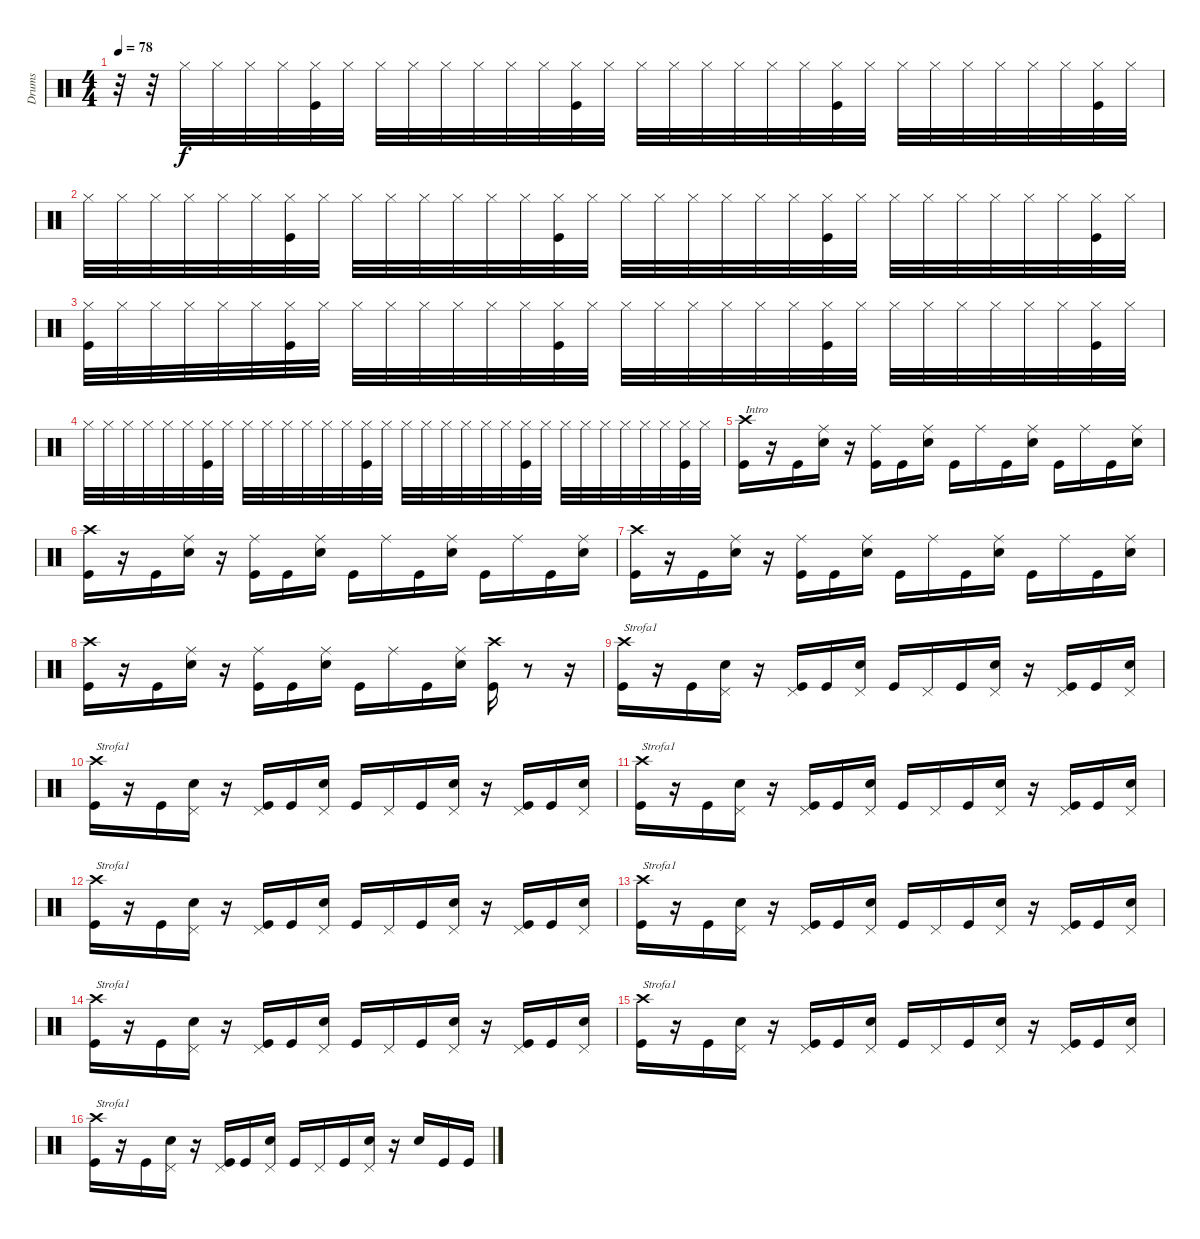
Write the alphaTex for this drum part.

\track ("Drums" "Drums") {instrument percussion}
\staff {score}
\articulation defaults
\ts (4 4)
\tempo 78
\clef neutral
\ks c
r.32{dy f} r.32 "Hi-Hat (closed)".32 "Hi-Hat (closed)".32 "Hi-Hat (closed)".32 "Hi-Hat (closed)".32 ("Hi-Hat (closed)" "Kick (hit)").32 "Hi-Hat (closed)".32 "Hi-Hat (closed)".32 "Hi-Hat (closed)".32 "Hi-Hat (closed)".32 "Hi-Hat (closed)".32 "Hi-Hat (closed)".32 "Hi-Hat (closed)".32 ("Hi-Hat (closed)" "Kick (hit)").32 "Hi-Hat (closed)".32 "Hi-Hat (closed)".32 "Hi-Hat (closed)".32 "Hi-Hat (closed)".32 "Hi-Hat (closed)".32 "Hi-Hat (closed)".32 "Hi-Hat (closed)".32 ("Hi-Hat (closed)" "Kick (hit)").32 "Hi-Hat (closed)".32 "Hi-Hat (closed)".32 "Hi-Hat (closed)".32 "Hi-Hat (closed)".32 "Hi-Hat (closed)".32 "Hi-Hat (closed)".32 "Hi-Hat (closed)".32 ("Hi-Hat (closed)" "Kick (hit)").32 "Hi-Hat (closed)".32 |
"Hi-Hat (closed)".32 "Hi-Hat (closed)".32 "Hi-Hat (closed)".32 "Hi-Hat (closed)".32 "Hi-Hat (closed)".32 "Hi-Hat (closed)".32 ("Hi-Hat (closed)" "Kick (hit)").32 "Hi-Hat (closed)".32 "Hi-Hat (closed)".32 "Hi-Hat (closed)".32 "Hi-Hat (closed)".32 "Hi-Hat (closed)".32 "Hi-Hat (closed)".32 "Hi-Hat (closed)".32 ("Hi-Hat (closed)" "Kick (hit)").32 "Hi-Hat (closed)".32 "Hi-Hat (closed)".32 "Hi-Hat (closed)".32 "Hi-Hat (closed)".32 "Hi-Hat (closed)".32 "Hi-Hat (closed)".32 "Hi-Hat (closed)".32 ("Hi-Hat (closed)" "Kick (hit)").32 "Hi-Hat (closed)".32 "Hi-Hat (closed)".32 "Hi-Hat (closed)".32 "Hi-Hat (closed)".32 "Hi-Hat (closed)".32 "Hi-Hat (closed)".32 "Hi-Hat (closed)".32 ("Hi-Hat (closed)" "Kick (hit)").32 "Hi-Hat (closed)".32 |
("Hi-Hat (closed)" "Kick (hit)").32 "Hi-Hat (closed)".32 "Hi-Hat (closed)".32 "Hi-Hat (closed)".32 "Hi-Hat (closed)".32 "Hi-Hat (closed)".32 ("Hi-Hat (closed)" "Kick (hit)").32 "Hi-Hat (closed)".32 "Hi-Hat (closed)".32 "Hi-Hat (closed)".32 "Hi-Hat (closed)".32 "Hi-Hat (closed)".32 "Hi-Hat (closed)".32 "Hi-Hat (closed)".32 ("Hi-Hat (closed)" "Kick (hit)").32 "Hi-Hat (closed)".32 "Hi-Hat (closed)".32 "Hi-Hat (closed)".32 "Hi-Hat (closed)".32 "Hi-Hat (closed)".32 "Hi-Hat (closed)".32 "Hi-Hat (closed)".32 ("Hi-Hat (closed)" "Kick (hit)").32 "Hi-Hat (closed)".32 "Hi-Hat (closed)".32 "Hi-Hat (closed)".32 "Hi-Hat (closed)".32 "Hi-Hat (closed)".32 "Hi-Hat (closed)".32 "Hi-Hat (closed)".32 ("Hi-Hat (closed)" "Kick (hit)").32 "Hi-Hat (closed)".32 |
"Hi-Hat (closed)".32 "Hi-Hat (closed)".32 "Hi-Hat (closed)".32 "Hi-Hat (closed)".32 "Hi-Hat (closed)".32 "Hi-Hat (closed)".32 ("Hi-Hat (closed)" "Kick (hit)").32 "Hi-Hat (closed)".32 "Hi-Hat (closed)".32 "Hi-Hat (closed)".32 "Hi-Hat (closed)".32 "Hi-Hat (closed)".32 "Hi-Hat (closed)".32 "Hi-Hat (closed)".32 ("Hi-Hat (closed)" "Kick (hit)").32 "Hi-Hat (closed)".32 "Hi-Hat (closed)".32 "Hi-Hat (closed)".32 "Hi-Hat (closed)".32 "Hi-Hat (closed)".32 "Hi-Hat (closed)".32 "Hi-Hat (closed)".32 ("Hi-Hat (closed)" "Kick (hit)").32 "Hi-Hat (closed)".32 "Hi-Hat (closed)".32 "Hi-Hat (closed)".32 "Hi-Hat (closed)".32 "Hi-Hat (closed)".32 "Hi-Hat (closed)".32 "Hi-Hat (closed)".32 ("Hi-Hat (closed)" "Kick (hit)").32 "Hi-Hat (closed)".32 |
("Crash high (hit)" "Kick (hit)").16{txt "Intro"} r.16 "Kick (hit)".16 ("Ride (middle)" "Snare (hit) 2").16 r.16 ("Ride (middle)" "Kick (hit)").16 "Kick (hit)".16 ("Ride (middle)" "Snare (hit) 2").16 "Kick (hit)".16 "Ride (middle)".16 "Kick (hit)".16 ("Ride (middle)" "Snare (hit) 2").16 "Kick (hit)".16 "Ride (middle)".16 "Kick (hit)".16 ("Ride (middle)" "Snare (hit) 2").16 |
("Crash high (hit)" "Kick (hit)").16 r.16 "Kick (hit)".16 ("Ride (middle)" "Snare (hit) 2").16 r.16 ("Ride (middle)" "Kick (hit)").16 "Kick (hit)".16 ("Ride (middle)" "Snare (hit) 2").16 "Kick (hit)".16 "Ride (middle)".16 "Kick (hit)".16 ("Ride (middle)" "Snare (hit) 2").16 "Kick (hit)".16 "Ride (middle)".16 "Kick (hit)".16 ("Ride (middle)" "Snare (hit) 2").16 |
("Crash high (hit)" "Kick (hit)").16 r.16 "Kick (hit)".16 ("Ride (middle)" "Snare (hit) 2").16 r.16 ("Ride (middle)" "Kick (hit)").16 "Kick (hit)".16 ("Ride (middle)" "Snare (hit) 2").16 "Kick (hit)".16 "Ride (middle)".16 "Kick (hit)".16 ("Ride (middle)" "Snare (hit) 2").16 "Kick (hit)".16 "Ride (middle)".16 "Kick (hit)".16 ("Ride (middle)" "Snare (hit) 2").16 |
("Crash high (hit)" "Kick (hit)").16 r.16 "Kick (hit)".16 ("Ride (middle)" "Snare (hit) 2").16 r.16 ("Ride (middle)" "Kick (hit)").16 "Kick (hit)".16 ("Ride (middle)" "Snare (hit) 2").16 "Kick (hit)".16 "Ride (middle)".16 "Kick (hit)".16 ("Ride (middle)" "Snare (hit) 2").16 ("Crash high (hit)" "Kick (hit)").16 r.8 r.16 |
("Crash high (hit)" "Kick (hit)").16{txt "Strofa1"} r.16 "Kick (hit)".16 ("Pedal Hi-Hat (hit)" "Snare (hit) 2").16 r.16 ("Pedal Hi-Hat (hit)" "Kick (hit)").16 "Kick (hit)".16 ("Pedal Hi-Hat (hit)" "Snare (hit) 2").16 "Kick (hit)".16 "Pedal Hi-Hat (hit)".16 "Kick (hit)".16 ("Pedal Hi-Hat (hit)" "Snare (hit) 2").16 r.16 ("Pedal Hi-Hat (hit)" "Kick (hit)").16 "Kick (hit)".16 ("Pedal Hi-Hat (hit)" "Snare (hit) 2").16 |
("Crash high (hit)" "Kick (hit)").16{txt "Strofa1"} r.16 "Kick (hit)".16 ("Pedal Hi-Hat (hit)" "Snare (hit) 2").16 r.16 ("Pedal Hi-Hat (hit)" "Kick (hit)").16 "Kick (hit)".16 ("Pedal Hi-Hat (hit)" "Snare (hit) 2").16 "Kick (hit)".16 "Pedal Hi-Hat (hit)".16 "Kick (hit)".16 ("Pedal Hi-Hat (hit)" "Snare (hit) 2").16 r.16 ("Pedal Hi-Hat (hit)" "Kick (hit)").16 "Kick (hit)".16 ("Pedal Hi-Hat (hit)" "Snare (hit) 2").16 |
("Crash high (hit)" "Kick (hit)").16{txt "Strofa1"} r.16 "Kick (hit)".16 ("Pedal Hi-Hat (hit)" "Snare (hit) 2").16 r.16 ("Pedal Hi-Hat (hit)" "Kick (hit)").16 "Kick (hit)".16 ("Pedal Hi-Hat (hit)" "Snare (hit) 2").16 "Kick (hit)".16 "Pedal Hi-Hat (hit)".16 "Kick (hit)".16 ("Pedal Hi-Hat (hit)" "Snare (hit) 2").16 r.16 ("Pedal Hi-Hat (hit)" "Kick (hit)").16 "Kick (hit)".16 ("Pedal Hi-Hat (hit)" "Snare (hit) 2").16 |
("Crash high (hit)" "Kick (hit)").16{txt "Strofa1"} r.16 "Kick (hit)".16 ("Pedal Hi-Hat (hit)" "Snare (hit) 2").16 r.16 ("Pedal Hi-Hat (hit)" "Kick (hit)").16 "Kick (hit)".16 ("Pedal Hi-Hat (hit)" "Snare (hit) 2").16 "Kick (hit)".16 "Pedal Hi-Hat (hit)".16 "Kick (hit)".16 ("Pedal Hi-Hat (hit)" "Snare (hit) 2").16 r.16 ("Pedal Hi-Hat (hit)" "Kick (hit)").16 "Kick (hit)".16 ("Pedal Hi-Hat (hit)" "Snare (hit) 2").16 |
("Crash high (hit)" "Kick (hit)").16{txt "Strofa1"} r.16 "Kick (hit)".16 ("Pedal Hi-Hat (hit)" "Snare (hit) 2").16 r.16 ("Pedal Hi-Hat (hit)" "Kick (hit)").16 "Kick (hit)".16 ("Pedal Hi-Hat (hit)" "Snare (hit) 2").16 "Kick (hit)".16 "Pedal Hi-Hat (hit)".16 "Kick (hit)".16 ("Pedal Hi-Hat (hit)" "Snare (hit) 2").16 r.16 ("Pedal Hi-Hat (hit)" "Kick (hit)").16 "Kick (hit)".16 ("Pedal Hi-Hat (hit)" "Snare (hit) 2").16 |
("Crash high (hit)" "Kick (hit)").16{txt "Strofa1"} r.16 "Kick (hit)".16 ("Pedal Hi-Hat (hit)" "Snare (hit) 2").16 r.16 ("Pedal Hi-Hat (hit)" "Kick (hit)").16 "Kick (hit)".16 ("Pedal Hi-Hat (hit)" "Snare (hit) 2").16 "Kick (hit)".16 "Pedal Hi-Hat (hit)".16 "Kick (hit)".16 ("Pedal Hi-Hat (hit)" "Snare (hit) 2").16 r.16 ("Pedal Hi-Hat (hit)" "Kick (hit)").16 "Kick (hit)".16 ("Pedal Hi-Hat (hit)" "Snare (hit) 2").16 |
("Crash high (hit)" "Kick (hit)").16{txt "Strofa1"} r.16 "Kick (hit)".16 ("Pedal Hi-Hat (hit)" "Snare (hit) 2").16 r.16 ("Pedal Hi-Hat (hit)" "Kick (hit)").16 "Kick (hit)".16 ("Pedal Hi-Hat (hit)" "Snare (hit) 2").16 "Kick (hit)".16 "Pedal Hi-Hat (hit)".16 "Kick (hit)".16 ("Pedal Hi-Hat (hit)" "Snare (hit) 2").16 r.16 ("Pedal Hi-Hat (hit)" "Kick (hit)").16 "Kick (hit)".16 ("Pedal Hi-Hat (hit)" "Snare (hit) 2").16 |
("Crash high (hit)" "Kick (hit)").16{txt "Strofa1"} r.16 "Kick (hit)".16 ("Pedal Hi-Hat (hit)" "Snare (hit) 2").16 r.16 ("Pedal Hi-Hat (hit)" "Kick (hit)").16 "Kick (hit)".16 ("Pedal Hi-Hat (hit)" "Snare (hit) 2").16 "Kick (hit)".16 "Pedal Hi-Hat (hit)".16 "Kick (hit)".16 ("Pedal Hi-Hat (hit)" "Snare (hit) 2").16 r.16 "Snare (hit) 2".16 "Kick (hit)".16 "Kick (hit)".16
